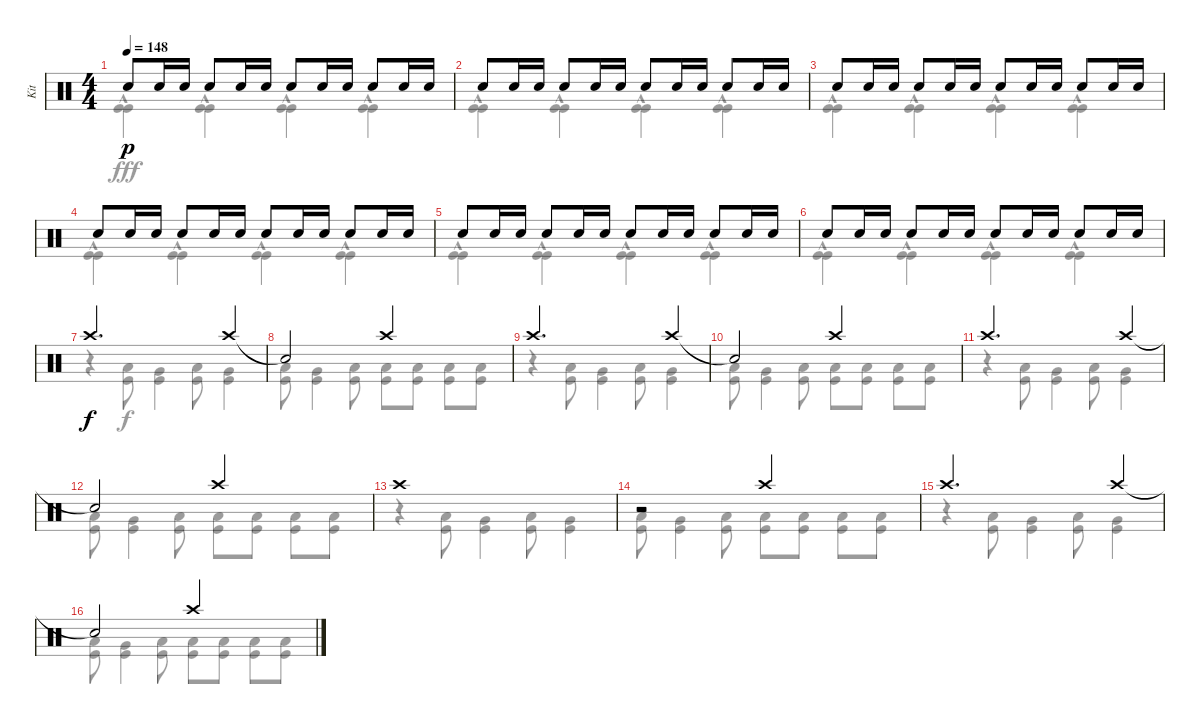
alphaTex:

\track ("Kit" "Kit") {instrument percussion}
\staff {score}
\articulation defaults
\voice
\ts (4 4)
\tempo 148
\clef neutral
\ks c "Snare (hit) 2".8{dy p} "Snare (hit) 2".16 "Snare (hit) 2".16 "Snare (hit) 2".8 "Snare (hit) 2".16 "Snare (hit) 2".16 "Snare (hit) 2".8 "Snare (hit) 2".16 "Snare (hit) 2".16 "Snare (hit) 2".8 "Snare (hit) 2".16 "Snare (hit) 2".16
|
"Snare (hit) 2".8{volume 6} "Snare (hit) 2".16 "Snare (hit) 2".16 "Snare (hit) 2".8 "Snare (hit) 2".16 "Snare (hit) 2".16 "Snare (hit) 2".8 "Snare (hit) 2".16 "Snare (hit) 2".16 "Snare (hit) 2".8 "Snare (hit) 2".16 "Snare (hit) 2".16 |
"Snare (hit) 2".8 "Snare (hit) 2".16 "Snare (hit) 2".16 "Snare (hit) 2".8 "Snare (hit) 2".16 "Snare (hit) 2".16 "Snare (hit) 2".8 "Snare (hit) 2".16 "Snare (hit) 2".16 "Snare (hit) 2".8 "Snare (hit) 2".16 "Snare (hit) 2".16 |
"Snare (hit) 2".8 "Snare (hit) 2".16 "Snare (hit) 2".16 "Snare (hit) 2".8 "Snare (hit) 2".16 "Snare (hit) 2".16 "Snare (hit) 2".8 "Snare (hit) 2".16 "Snare (hit) 2".16 "Snare (hit) 2".8 "Snare (hit) 2".16 "Snare (hit) 2".16 |
"Snare (hit) 2".8 "Snare (hit) 2".16 "Snare (hit) 2".16 "Snare (hit) 2".8 "Snare (hit) 2".16 "Snare (hit) 2".16 "Snare (hit) 2".8 "Snare (hit) 2".16 "Snare (hit) 2".16 "Snare (hit) 2".8 "Snare (hit) 2".16 "Snare (hit) 2".16 |
"Snare (hit) 2".8 "Snare (hit) 2".16 "Snare (hit) 2".16 "Snare (hit) 2".8 "Snare (hit) 2".16 "Snare (hit) 2".16 "Snare (hit) 2".8 "Snare (hit) 2".16 "Snare (hit) 2".16 "Snare (hit) 2".8 "Snare (hit) 2".16 "Snare (hit) 2".16 |
"Crash high (hit)".2{d dy f} "Crash high (hit)".4 |
"Snare (hit)"{t}.2 "Crash high (hit)".2 |
"Crash high (hit)".2{d} "Crash high (hit)".4 |
"Snare (hit)"{t}.2 "Crash high (hit)".2 |
"Crash high (hit)".2{d} "Crash high (hit)".4 |
"Snare (hit)"{t}.2 "Crash high (hit)".2 |
"Crash high (hit)".1 |
r.2 "Crash high (hit)".2 |
"Crash high (hit)".2{d} "Crash high (hit)".4 |
"Snare (hit)"{t}.2 "Crash high (hit)".2
\voice
\clef neutral
\ottava regular
\simile none
\ks c
("Kick (hit)" "Kick (hit)"{hac}).4{dy fff} ("Kick (hit)" "Kick (hit)"{hac}).4 ("Kick (hit)" "Kick (hit)"{hac}).4 ("Kick (hit)" "Kick (hit)"{hac}).4 |
("Kick (hit)" "Kick (hit)"{hac}).4 ("Kick (hit)" "Kick (hit)"{hac}).4 ("Kick (hit)" "Kick (hit)"{hac}).4 ("Kick (hit)" "Kick (hit)"{hac}).4 |
("Kick (hit)" "Kick (hit)"{hac}).4 ("Kick (hit)" "Kick (hit)"{hac}).4 ("Kick (hit)" "Kick (hit)"{hac}).4 ("Kick (hit)" "Kick (hit)"{hac}).4 |
("Kick (hit)" "Kick (hit)"{hac}).4 ("Kick (hit)" "Kick (hit)"{hac}).4 ("Kick (hit)" "Kick (hit)"{hac}).4 ("Kick (hit)" "Kick (hit)"{hac}).4 |
("Kick (hit)" "Kick (hit)"{hac}).4 ("Kick (hit)" "Kick (hit)"{hac}).4 ("Kick (hit)" "Kick (hit)"{hac}).4 ("Kick (hit)" "Kick (hit)"{hac}).4 |
("Kick (hit)" "Kick (hit)"{hac}).4 ("Kick (hit)" "Kick (hit)"{hac}).4 ("Kick (hit)" "Kick (hit)"{hac}).4 ("Kick (hit)" "Kick (hit)"{hac}).4 |
r.4 ("Low Floor Tom (hit)" "Kick (hit)").8{dy f} ("Very Low Tom (hit)" "Kick (hit)").4 ("Low Floor Tom (hit)" "Kick (hit)").8 ("Very Low Tom (hit)" "Kick (hit)").4 |
("Low Floor Tom (hit)" "Kick (hit)").8 ("Very Low Tom (hit)" "Kick (hit)").4 ("Low Floor Tom (hit)" "Kick (hit)").8 ("Low Floor Tom (hit)" "Kick (hit)").8 ("Low Floor Tom (hit)" "Kick (hit)").8 ("Low Floor Tom (hit)" "Kick (hit)").8 ("Low Floor Tom (hit)" "Kick (hit)").8 |
r.4 ("Low Floor Tom (hit)" "Kick (hit)").8 ("Very Low Tom (hit)" "Kick (hit)").4 ("Low Floor Tom (hit)" "Kick (hit)").8 ("Very Low Tom (hit)" "Kick (hit)").4 |
("Low Floor Tom (hit)" "Kick (hit)").8 ("Very Low Tom (hit)" "Kick (hit)").4 ("Low Floor Tom (hit)" "Kick (hit)").8 ("Low Floor Tom (hit)" "Kick (hit)").8 ("Low Floor Tom (hit)" "Kick (hit)").8 ("Low Floor Tom (hit)" "Kick (hit)").8 ("Low Floor Tom (hit)" "Kick (hit)").8 |
r.4 ("Low Floor Tom (hit)" "Kick (hit)").8 ("Very Low Tom (hit)" "Kick (hit)").4 ("Low Floor Tom (hit)" "Kick (hit)").8 ("Very Low Tom (hit)" "Kick (hit)").4 |
("Low Floor Tom (hit)" "Kick (hit)").8 ("Very Low Tom (hit)" "Kick (hit)").4 ("Low Floor Tom (hit)" "Kick (hit)").8 ("Low Floor Tom (hit)" "Kick (hit)").8 ("Low Floor Tom (hit)" "Kick (hit)").8 ("Low Floor Tom (hit)" "Kick (hit)").8 ("Low Floor Tom (hit)" "Kick (hit)").8 |
r.4 ("Low Floor Tom (hit)" "Kick (hit)").8 ("Very Low Tom (hit)" "Kick (hit)").4 ("Low Floor Tom (hit)" "Kick (hit)").8 ("Very Low Tom (hit)" "Kick (hit)").4 |
("Low Floor Tom (hit)" "Kick (hit)").8 ("Very Low Tom (hit)" "Kick (hit)").4 ("Low Floor Tom (hit)" "Kick (hit)").8 ("Low Floor Tom (hit)" "Kick (hit)").8 ("Low Floor Tom (hit)" "Kick (hit)").8 ("Low Floor Tom (hit)" "Kick (hit)").8 ("Low Floor Tom (hit)" "Kick (hit)").8 |
r.4 ("Low Floor Tom (hit)" "Kick (hit)").8 ("Very Low Tom (hit)" "Kick (hit)").4 ("Low Floor Tom (hit)" "Kick (hit)").8 ("Very Low Tom (hit)" "Kick (hit)").4 |
("Low Floor Tom (hit)" "Kick (hit)").8 ("Very Low Tom (hit)" "Kick (hit)").4 ("Low Floor Tom (hit)" "Kick (hit)").8 ("Low Floor Tom (hit)" "Kick (hit)").8 ("Low Floor Tom (hit)" "Kick (hit)").8 ("Low Floor Tom (hit)" "Kick (hit)").8 ("Low Floor Tom (hit)" "Kick (hit)").8
